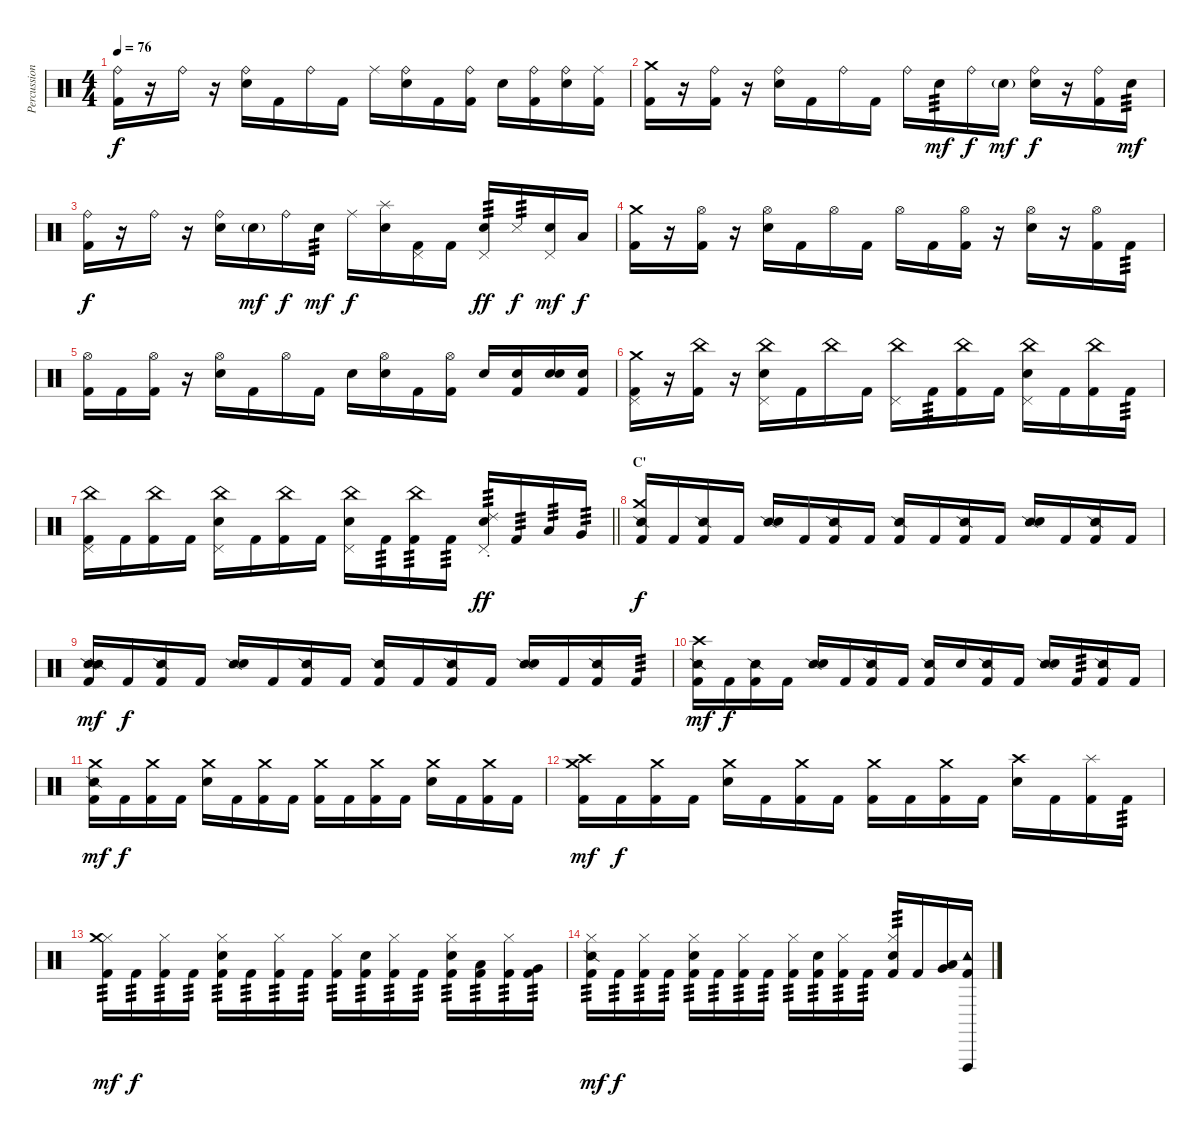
\track ("Percussion" "Percussion") {instrument percussion}
\staff {score}
\articulation defaults
\ts (4 4)
\tempo 76
\clef neutral
\ks c
("Ride (bell)" "Kick (hit) 2").16{dy f} r.16 "Ride (bell)".16 r.16 ("Ride (bell)" "Snare (hit) 2").16 "Kick (hit) 2".16 "Ride (bell)".16 "Kick (hit) 2".16 "Ride (middle)".16 ("Ride (bell)" "Snare (hit) 2").16 "Kick (hit) 2".16 ("Ride (bell)" "Kick (hit) 2").16 "Snare (hit) 2".16 ("Ride (bell)" "Kick (hit) 2").16 ("Ride (bell)" "Snare (hit) 2").16 ("Ride (middle)" "Kick (hit) 2").16 |
("Crash medium (hit)" "Kick (hit) 2").16 r.16 ("Ride (bell)" "Kick (hit) 2").16 r.16 ("Ride (bell)" "Snare (hit) 2").16 "Kick (hit) 2".16 "Ride (bell)".16 "Kick (hit) 2".16 "Ride (bell)".16 "Snare (hit) 2".16{tp 3 dy mf} "Ride (bell)".16{dy f} "Snare (hit) 2"{g}.16{dy mf} ("Ride (bell)" "Snare (hit) 2").16{dy f} r.16 ("Ride (bell)" "Kick (hit) 2").16 "Snare (hit) 2".16{tp 3 dy mf} |
("Ride (bell)" "Kick (hit) 2").16{dy f} r.16 "Ride (bell)".16 r.16 ("Ride (bell)" "Snare (hit) 2").16 "Snare (hit) 2"{g}.16{dy mf} "Ride (bell)".16{dy f} "Snare (hit) 2".16{tp 3 dy mf} "Ride (middle)".16{dy f} ("Splash (hit)" "Snare (hit) 2").16 ("Pedal Hi-Hat (hit)" "Kick (hit) 2").16 "Kick (hit) 2".16 ("Pedal Hi-Hat (hit)" "Snare (hit) 2").16{tp 3 dy ff} "Metronome (hit)".16{tp 3 dy f} ("Pedal Hi-Hat (hit)" "Snare (hit) 2").16{dy mf} "Low Tom (hit)".16{dy f} |
("Crash medium (hit)" "Kick (hit) 2").16 r.16 ("Hi-Hat (open)" "Kick (hit) 2").16 r.16 ("Hi-Hat (open)" "Snare (hit) 2").16 "Kick (hit) 2".16 "Hi-Hat (open)".16 "Kick (hit) 2".16 "Hi-Hat (open)".16 "Kick (hit) 2".16 ("Hi-Hat (open)" "Kick (hit) 2").16 r.16 ("Hi-Hat (open)" "Snare (hit) 2").16 r.16 ("Hi-Hat (open)" "Kick (hit) 2").16 "Kick (hit) 2".16{tp 3} |
("Hi-Hat (open)" "Kick (hit) 2").16 "Kick (hit) 2".16 ("Hi-Hat (open)" "Kick (hit) 2").16 r.16 ("Hi-Hat (open)" "Snare (hit) 2").16 "Kick (hit) 2".16 "Hi-Hat (open)".16 "Kick (hit) 2".16 "Snare (hit)".16 ("Hi-Hat (open)" "Snare (hit) 2").16 "Kick (hit) 2".16 ("Hi-Hat (open)" "Kick (hit) 2").16 "Snare (hit) 2".16 ("Snare (hit)" "Kick (hit) 2").16 ("Snare (hit)" "Snare (hit) 2").16 ("Snare (hit)" "Kick (hit) 2").16 |
("Crash medium (hit)" "Pedal Hi-Hat (hit)" "Kick (hit) 2").16 r.16 ("China (hit)" "Kick (hit) 2").16 r.16 ("China (hit)" "Pedal Hi-Hat (hit)" "Snare (hit) 2").16 "Kick (hit) 2".16 "China (hit)".16 "Kick (hit) 2".16 ("China (hit)" "Pedal Hi-Hat (hit)").16 "Kick (hit) 2".16{tp 3} ("China (hit)" "Kick (hit) 2").16 "Kick (hit) 2".16 ("China (hit)" "Pedal Hi-Hat (hit)" "Snare (hit) 2").16 "Kick (hit) 2".16 ("China (hit)" "Kick (hit) 2").16 "Kick (hit) 2".16{tp 3} |
\barLineRight lightlight
("China (hit)" "Pedal Hi-Hat (hit)" "Kick (hit) 2").16 "Kick (hit) 2".16 ("China (hit)" "Kick (hit) 2").16 "Kick (hit) 2".16 ("China (hit)" "Pedal Hi-Hat (hit)" "Snare (hit) 2").16 "Kick (hit) 2".16 ("China (hit)" "Kick (hit) 2").16 "Kick (hit) 2".16 ("China (hit)" "Pedal Hi-Hat (hit)" "Snare (hit) 2").16 "Kick (hit) 2".16{tp 3} ("China (hit)" "Kick (hit) 2").16{tp 3} "Kick (hit) 2".16{tp 3} ("Ride (choke) 2" "Pedal Hi-Hat (hit)" "Snare (hit) 2").16{tp 3 dy ff} "Kick (hit) 2".16{tp 3} "Low Tom (hit)".16{tp 3} "Very Low Tom (hit)".16{tp 3} |
\section ("" "C'")
("Snare (side stick) 2" "Crash medium (hit)" "Kick (hit) 2").16{dy f} "Kick (hit) 2".16 ("Snare (side stick) 2" "Kick (hit) 2").16 "Kick (hit) 2".16 ("Snare (side stick) 2" "Snare (hit) 2").16 "Kick (hit) 2".16 ("Snare (side stick) 2" "Kick (hit) 2").16 "Kick (hit) 2".16 ("Snare (side stick) 2" "Kick (hit) 2").16 "Kick (hit) 2".16 ("Snare (side stick) 2" "Kick (hit) 2").16 "Kick (hit) 2".16 ("Snare (side stick) 2" "Snare (hit) 2").16 "Kick (hit) 2".16 ("Snare (side stick) 2" "Kick (hit) 2").16 "Kick (hit) 2".16 |
("Snare (side stick) 2" "Snare (side stick) 2" "Kick (hit) 2").16{dy mf} "Kick (hit) 2".16{dy f} ("Snare (side stick) 2" "Kick (hit) 2").16 "Kick (hit) 2".16 ("Snare (side stick) 2" "Snare (hit) 2").16 "Kick (hit) 2".16 ("Snare (side stick) 2" "Kick (hit) 2").16 "Kick (hit) 2".16 ("Snare (side stick) 2" "Kick (hit) 2").16 "Kick (hit) 2".16 ("Snare (side stick) 2" "Kick (hit) 2").16 "Kick (hit) 2".16 ("Snare (side stick) 2" "Snare (hit) 2").16 "Kick (hit) 2".16 ("Snare (side stick) 2" "Kick (hit) 2").16 "Kick (hit) 2".16{tp 3} |
("Snare (side stick) 2" "Crash high (hit)" "Kick (hit) 2").16{dy mf} "Kick (hit) 2".16{dy f} ("Snare (side stick) 2" "Kick (hit) 2").16 "Kick (hit) 2".16 ("Snare (side stick) 2" "Snare (hit) 2").16 "Kick (hit) 2".16 ("Snare (side stick) 2" "Kick (hit) 2").16 "Kick (hit) 2".16 ("Snare (side stick) 2" "Kick (hit) 2").16 "Snare (hit) 2".16 ("Snare (side stick) 2" "Kick (hit) 2").16 "Kick (hit) 2".16 ("Snare (side stick) 2" "Snare (hit) 2").16 "Kick (hit) 2".16{tp 3} ("Snare (side stick) 2" "Kick (hit) 2").16 "Kick (hit) 2".16 |
("Crash medium (hit)" "Snare (side stick) 2" "Kick (hit) 2").16{dy mf} "Kick (hit) 2".16{dy f} ("Crash medium (hit)" "Kick (hit) 2").16 "Kick (hit) 2".16 ("Crash medium (hit)" "Snare (hit) 2").16 "Kick (hit) 2".16 ("Crash medium (hit)" "Kick (hit) 2").16 "Kick (hit) 2".16 ("Crash medium (hit)" "Kick (hit) 2").16 "Kick (hit) 2".16 ("Crash medium (hit)" "Kick (hit) 2").16 "Kick (hit) 2".16 ("Crash medium (hit)" "Snare (hit) 2").16 "Kick (hit) 2".16 ("Crash medium (hit)" "Kick (hit) 2").16 "Kick (hit) 2".16 |
("Crash medium (hit)" "Crash high (hit)" "Kick (hit) 2").16{dy mf} "Kick (hit) 2".16{dy f} ("Crash medium (hit)" "Kick (hit) 2").16 "Kick (hit) 2".16 ("Crash medium (hit)" "Snare (hit) 2").16 "Kick (hit) 2".16 ("Crash medium (hit)" "Kick (hit) 2").16 "Kick (hit) 2".16 ("Crash medium (hit)" "Kick (hit) 2").16 "Kick (hit) 2".16 ("Crash medium (hit)" "Kick (hit) 2").16 "Kick (hit) 2".16 ("Crash high (hit)" "Snare (hit) 2").16 "Kick (hit) 2".16 ("Splash (hit)" "Kick (hit) 2").16 "Kick (hit) 2".16{tp 3} |
("Hi-Hat (closed)" "Crash medium (hit)" "Kick (hit) 2").16{tp 3 dy mf} "Kick (hit) 2".16{tp 3 dy f} ("Hi-Hat (closed)" "Kick (hit) 2").16{tp 3} "Kick (hit) 2".16{tp 3} ("Hi-Hat (closed)" "Snare (hit) 2" "Kick (hit) 2").16{tp 3} "Kick (hit) 2".16{tp 3} ("Hi-Hat (closed)" "Kick (hit) 2").16{tp 3} "Kick (hit) 2".16{tp 3} ("Hi-Hat (closed)" "Kick (hit) 2").16{tp 3} ("Snare (hit) 2" "Kick (hit) 2").16{tp 3} ("Hi-Hat (closed)" "Kick (hit) 2").16{tp 3} "Kick (hit) 2".16{tp 3} ("Hi-Hat (closed)" "Snare (hit) 2" "Kick (hit) 2").16{tp 3} ("Low Tom (hit)" "Kick (hit) 2").16{tp 3} ("Hi-Hat (closed)" "Kick (hit) 2").16{tp 3} ("Very Low Tom (hit)" "Kick (hit) 2").16{tp 3} |
("Hi-Hat (closed)" "Snare (side stick) 2" "Kick (hit) 2").16{tp 3 dy mf} "Kick (hit) 2".16{tp 3 dy f} ("Hi-Hat (closed)" "Kick (hit) 2").16{tp 3} "Kick (hit) 2".16{tp 3} ("Hi-Hat (closed)" "Snare (hit) 2" "Kick (hit) 2").16{tp 3} "Kick (hit) 2".16{tp 3} ("Hi-Hat (closed)" "Kick (hit) 2").16{tp 3} "Kick (hit) 2".16{tp 3} ("Hi-Hat (closed)" "Kick (hit) 2").16{tp 3} ("Snare (hit) 2" "Kick (hit) 2").16{tp 3} ("Hi-Hat (closed)" "Kick (hit) 2").16{tp 3} "Kick (hit) 2".16{tp 3} ("Hi-Hat (closed)" "Snare (hit) 2" "Kick (hit) 2").16{tp 3} "Kick (hit) 2".16 ("Low Tom (hit)" "Very Low Tom (hit)").16{bu 60} ("Tambourine (hit)" "Vibraslap (hit)" "Kick (hit) 2").16
